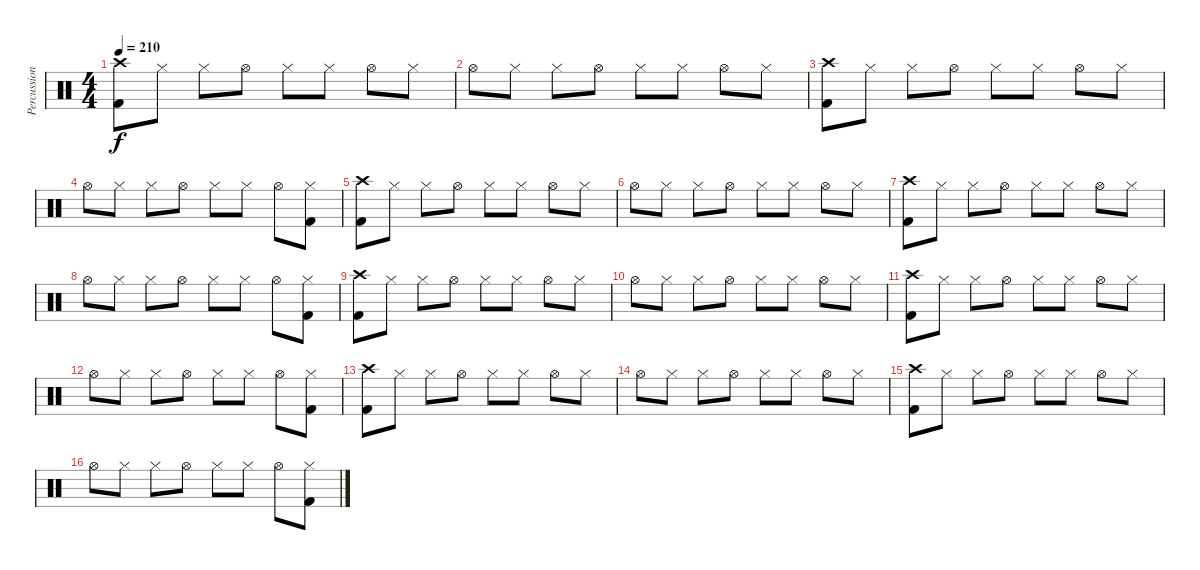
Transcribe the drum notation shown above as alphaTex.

\track ("Percussion" "Percussion") {instrument percussion}
\staff {score}
\articulation defaults
\ts (4 4)
\tempo 210
\clef neutral
\ks c
("Crash high (hit)" "Kick (hit) 2").8{dy f} "Hi-Hat (closed)".8 "Hi-Hat (closed)".8 "Hi-Hat (open)".8 "Hi-Hat (closed)".8 "Hi-Hat (closed)".8 "Hi-Hat (open)".8 "Hi-Hat (closed)".8 |
"Hi-Hat (open)".8 "Hi-Hat (closed)".8 "Hi-Hat (closed)".8 "Hi-Hat (open)".8 "Hi-Hat (closed)".8 "Hi-Hat (closed)".8 "Hi-Hat (open)".8 "Hi-Hat (closed)".8 |
("Crash high (hit)" "Kick (hit) 2").8 "Hi-Hat (closed)".8 "Hi-Hat (closed)".8 "Hi-Hat (open)".8 "Hi-Hat (closed)".8 "Hi-Hat (closed)".8 "Hi-Hat (open)".8 "Hi-Hat (closed)".8 |
"Hi-Hat (open)".8 "Hi-Hat (closed)".8 "Hi-Hat (closed)".8 "Hi-Hat (open)".8 "Hi-Hat (closed)".8 "Hi-Hat (closed)".8 "Hi-Hat (open)".8 ("Hi-Hat (closed)" "Kick (hit) 2").8 |
("Crash high (hit)" "Kick (hit) 2").8 "Hi-Hat (closed)".8 "Hi-Hat (closed)".8 "Hi-Hat (open)".8 "Hi-Hat (closed)".8 "Hi-Hat (closed)".8 "Hi-Hat (open)".8 "Hi-Hat (closed)".8 |
"Hi-Hat (open)".8 "Hi-Hat (closed)".8 "Hi-Hat (closed)".8 "Hi-Hat (open)".8 "Hi-Hat (closed)".8 "Hi-Hat (closed)".8 "Hi-Hat (open)".8 "Hi-Hat (closed)".8 |
("Crash high (hit)" "Kick (hit) 2").8 "Hi-Hat (closed)".8 "Hi-Hat (closed)".8 "Hi-Hat (open)".8 "Hi-Hat (closed)".8 "Hi-Hat (closed)".8 "Hi-Hat (open)".8 "Hi-Hat (closed)".8 |
"Hi-Hat (open)".8 "Hi-Hat (closed)".8 "Hi-Hat (closed)".8 "Hi-Hat (open)".8 "Hi-Hat (closed)".8 "Hi-Hat (closed)".8 "Hi-Hat (open)".8 ("Hi-Hat (closed)" "Kick (hit) 2").8 |
("Crash high (hit)" "Kick (hit) 2").8 "Hi-Hat (closed)".8 "Hi-Hat (closed)".8 "Hi-Hat (open)".8 "Hi-Hat (closed)".8 "Hi-Hat (closed)".8 "Hi-Hat (open)".8 "Hi-Hat (closed)".8 |
"Hi-Hat (open)".8 "Hi-Hat (closed)".8 "Hi-Hat (closed)".8 "Hi-Hat (open)".8 "Hi-Hat (closed)".8 "Hi-Hat (closed)".8 "Hi-Hat (open)".8 "Hi-Hat (closed)".8 |
("Crash high (hit)" "Kick (hit) 2").8 "Hi-Hat (closed)".8 "Hi-Hat (closed)".8 "Hi-Hat (open)".8 "Hi-Hat (closed)".8 "Hi-Hat (closed)".8 "Hi-Hat (open)".8 "Hi-Hat (closed)".8 |
"Hi-Hat (open)".8 "Hi-Hat (closed)".8 "Hi-Hat (closed)".8 "Hi-Hat (open)".8 "Hi-Hat (closed)".8 "Hi-Hat (closed)".8 "Hi-Hat (open)".8 ("Hi-Hat (closed)" "Kick (hit) 2").8 |
("Crash high (hit)" "Kick (hit) 2").8 "Hi-Hat (closed)".8 "Hi-Hat (closed)".8 "Hi-Hat (open)".8 "Hi-Hat (closed)".8 "Hi-Hat (closed)".8 "Hi-Hat (open)".8 "Hi-Hat (closed)".8 |
"Hi-Hat (open)".8 "Hi-Hat (closed)".8 "Hi-Hat (closed)".8 "Hi-Hat (open)".8 "Hi-Hat (closed)".8 "Hi-Hat (closed)".8 "Hi-Hat (open)".8 "Hi-Hat (closed)".8 |
("Crash high (hit)" "Kick (hit) 2").8 "Hi-Hat (closed)".8 "Hi-Hat (closed)".8 "Hi-Hat (open)".8 "Hi-Hat (closed)".8 "Hi-Hat (closed)".8 "Hi-Hat (open)".8 "Hi-Hat (closed)".8 |
"Hi-Hat (open)".8 "Hi-Hat (closed)".8 "Hi-Hat (closed)".8 "Hi-Hat (open)".8 "Hi-Hat (closed)".8 "Hi-Hat (closed)".8 "Hi-Hat (open)".8 ("Hi-Hat (closed)" "Kick (hit) 2").8
